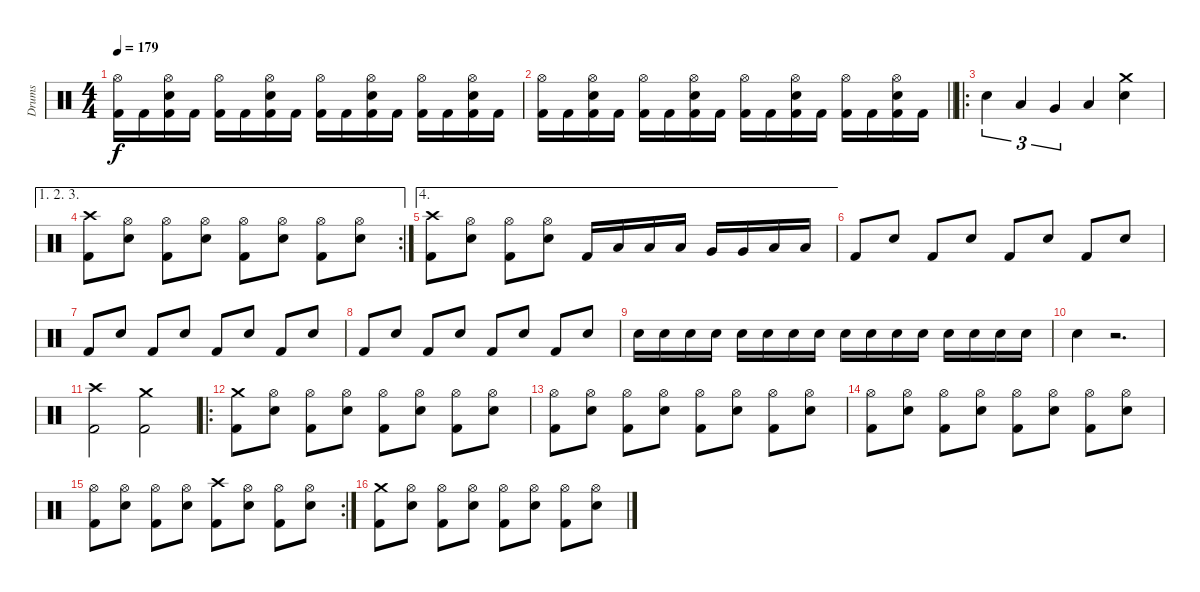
\track ("Drums" "Drums") {instrument percussion}
\staff {score}
\articulation defaults
\ts (4 4)
\tempo 179
\clef neutral
\ks c
("Hi-Hat (open)" "Kick (hit) 2").16{dy f} "Kick (hit) 2".16 ("Hi-Hat (open)" "Electric Snare (hit)" "Kick (hit) 2").16 "Kick (hit) 2".16 ("Hi-Hat (open)" "Kick (hit) 2").16 "Kick (hit) 2".16 ("Hi-Hat (open)" "Electric Snare (hit)" "Kick (hit) 2").16 "Kick (hit) 2".16 ("Hi-Hat (open)" "Kick (hit) 2").16 "Kick (hit) 2".16 ("Hi-Hat (open)" "Electric Snare (hit)" "Kick (hit) 2").16 "Kick (hit) 2".16 ("Hi-Hat (open)" "Kick (hit) 2").16 "Kick (hit) 2".16 ("Hi-Hat (open)" "Electric Snare (hit)" "Kick (hit) 2").16 "Kick (hit) 2".16 |
\barLineRight lightlight
("Hi-Hat (open)" "Kick (hit) 2").16 "Kick (hit) 2".16 ("Hi-Hat (open)" "Electric Snare (hit)" "Kick (hit) 2").16 "Kick (hit) 2".16 ("Hi-Hat (open)" "Kick (hit) 2").16 "Kick (hit) 2".16 ("Hi-Hat (open)" "Electric Snare (hit)" "Kick (hit) 2").16 "Kick (hit) 2".16 ("Hi-Hat (open)" "Kick (hit) 2").16 "Kick (hit) 2".16 ("Hi-Hat (open)" "Electric Snare (hit)" "Kick (hit) 2").16 "Kick (hit) 2".16 ("Hi-Hat (open)" "Kick (hit) 2").16 "Kick (hit) 2".16 ("Hi-Hat (open)" "Electric Snare (hit)" "Kick (hit) 2").16 "Kick (hit) 2".16 |
\ro "Electric Snare (hit)".4{tu (3 2)} "Low Tom (hit)".4{tu (3 2)} "Very Low Tom (hit)".4{tu (3 2)} "Low Floor Tom (hit)".4
("Crash medium (hit)" "Electric Snare (hit)").4 |
\ae (1 2 3)
\rc 2
("Crash high (hit)" "Kick (hit) 2").8 ("Hi-Hat (open)" "Electric Snare (hit)").8 ("Hi-Hat (open)" "Kick (hit) 2").8 ("Hi-Hat (open)" "Electric Snare (hit)").8 ("Hi-Hat (open)" "Kick (hit) 2").8 ("Hi-Hat (open)" "Electric Snare (hit)").8 ("Hi-Hat (open)" "Kick (hit) 2").8 ("Hi-Hat (open)" "Electric Snare (hit)").8 |
\ae 4
("Crash high (hit)" "Kick (hit) 2").8 ("Hi-Hat (open)" "Electric Snare (hit)").8 ("Hi-Hat (open)" "Kick (hit) 2").8 ("Hi-Hat (open)" "Electric Snare (hit)").8 "Kick (hit) 2".16 "Low Tom (hit)".16 "Low Tom (hit)".16 "Low Tom (hit)".16 "Very Low Tom (hit)".16 "Very Low Tom (hit)".16 "Low Floor Tom (hit)".16 "Low Floor Tom (hit)".16 |
"Kick (hit) 2".8 "Electric Snare (hit)".8 "Kick (hit) 2".8 "Electric Snare (hit)".8 "Kick (hit) 2".8 "Electric Snare (hit)".8 "Kick (hit) 2".8 "Electric Snare (hit)".8 |
"Kick (hit) 2".8 "Electric Snare (hit)".8 "Kick (hit) 2".8 "Electric Snare (hit)".8 "Kick (hit) 2".8 "Electric Snare (hit)".8 "Kick (hit) 2".8 "Electric Snare (hit)".8 |
"Kick (hit) 2".8 "Electric Snare (hit)".8 "Kick (hit) 2".8 "Electric Snare (hit)".8 "Kick (hit) 2".8 "Electric Snare (hit)".8 "Kick (hit) 2".8 "Electric Snare (hit)".8 |
"Electric Snare (hit)".16 "Electric Snare (hit)".16 "Electric Snare (hit)".16 "Electric Snare (hit)".16 "Electric Snare (hit)".16 "Electric Snare (hit)".16 "Electric Snare (hit)".16 "Electric Snare (hit)".16 "Electric Snare (hit)".16 "Electric Snare (hit)".16 "Electric Snare (hit)".16 "Electric Snare (hit)".16 "Electric Snare (hit)".16 "Electric Snare (hit)".16 "Electric Snare (hit)".16 "Electric Snare (hit)".16 |
"Electric Snare (hit)".4 r.2{d} |
("Crash high (hit)" "Kick (hit) 2").2 ("Crash medium (hit)" "Kick (hit) 2").2 |
\ro
("Crash medium (hit)" "Kick (hit) 2").8 ("Hi-Hat (open)" "Electric Snare (hit)").8 ("Hi-Hat (open)" "Kick (hit) 2").8 ("Hi-Hat (open)" "Electric Snare (hit)").8 ("Hi-Hat (open)" "Kick (hit) 2").8 ("Hi-Hat (open)" "Electric Snare (hit)").8 ("Hi-Hat (open)" "Kick (hit) 2").8 ("Hi-Hat (open)" "Electric Snare (hit)").8 |
("Hi-Hat (open)" "Kick (hit) 2").8 ("Hi-Hat (open)" "Electric Snare (hit)").8 ("Hi-Hat (open)" "Kick (hit) 2").8 ("Hi-Hat (open)" "Electric Snare (hit)").8 ("Hi-Hat (open)" "Kick (hit) 2").8 ("Hi-Hat (open)" "Electric Snare (hit)").8 ("Hi-Hat (open)" "Kick (hit) 2").8 ("Hi-Hat (open)" "Electric Snare (hit)").8 |
("Hi-Hat (open)" "Kick (hit) 2").8 ("Hi-Hat (open)" "Electric Snare (hit)").8 ("Hi-Hat (open)" "Kick (hit) 2").8 ("Hi-Hat (open)" "Electric Snare (hit)").8 ("Hi-Hat (open)" "Kick (hit) 2").8 ("Hi-Hat (open)" "Electric Snare (hit)").8 ("Hi-Hat (open)" "Kick (hit) 2").8 ("Hi-Hat (open)" "Electric Snare (hit)").8 |
\rc 2
("Hi-Hat (open)" "Kick (hit) 2").8 ("Hi-Hat (open)" "Electric Snare (hit)").8 ("Hi-Hat (open)" "Kick (hit) 2").8 ("Hi-Hat (open)" "Electric Snare (hit)").8 ("Crash high (hit)" "Kick (hit) 2").8 ("Hi-Hat (open)" "Electric Snare (hit)").8 ("Hi-Hat (open)" "Kick (hit) 2").8 ("Hi-Hat (open)" "Electric Snare (hit)").8 |
("Crash medium (hit)" "Kick (hit) 2").8 ("Hi-Hat (open)" "Electric Snare (hit)").8 ("Hi-Hat (open)" "Kick (hit) 2").8 ("Hi-Hat (open)" "Electric Snare (hit)").8 ("Hi-Hat (open)" "Kick (hit) 2").8 ("Hi-Hat (open)" "Electric Snare (hit)").8 ("Hi-Hat (open)" "Kick (hit) 2").8 ("Hi-Hat (open)" "Electric Snare (hit)").8
